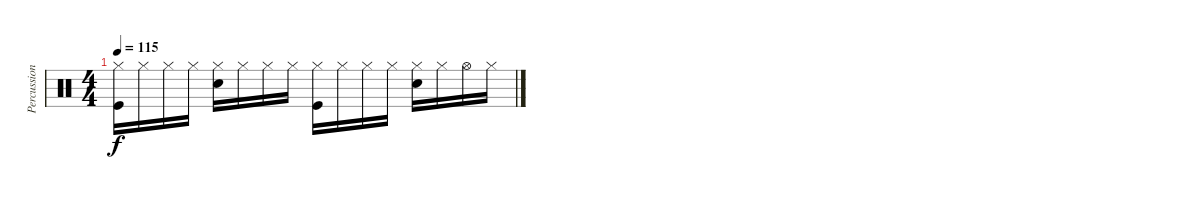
\track ("Percussions" "Percussion") {instrument percussion}
\staff {score}
\articulation defaults
\ts (4 4)
\tempo 115
\clef neutral
\ks c
("Kick (hit)" "Hi-Hat (closed)").16{dy f} "Hi-Hat (closed)".16 "Hi-Hat (closed)".16 "Hi-Hat (closed)".16 ("Snare (hit) 2" "Hi-Hat (closed)").16 "Hi-Hat (closed)".16 "Hi-Hat (closed)".16 "Hi-Hat (closed)".16 ("Kick (hit)" "Hi-Hat (closed)").16 "Hi-Hat (closed)".16 "Hi-Hat (closed)".16 "Hi-Hat (closed)".16 ("Snare (hit) 2" "Hi-Hat (closed)").16 "Hi-Hat (closed)".16 "Hi-Hat (open)".16 "Hi-Hat (closed)".16
